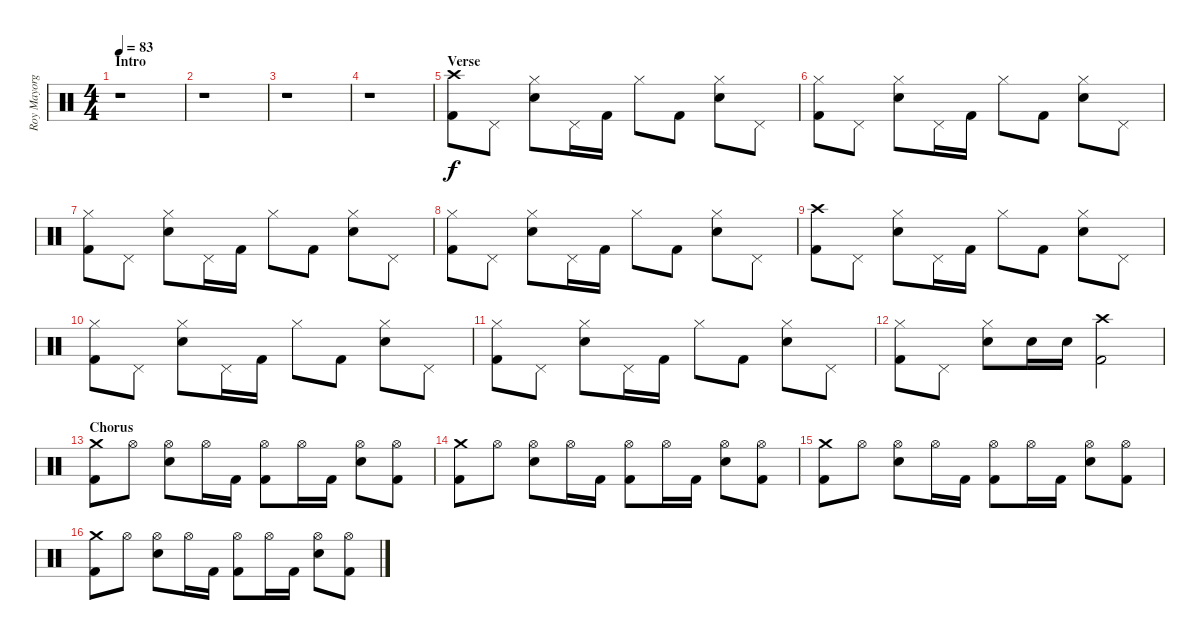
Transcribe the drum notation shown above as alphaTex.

\track ("Roy Mayorga" "Roy Mayorg") {instrument percussion}
\staff {score}
\articulation defaults
\ts (4 4)
\section ("" "Intro")
\tempo 83
\clef neutral
\ks c
r.1{dy f} |
r.1 |
r.1 |
r.1 |
\section ("" "Verse ")
("Crash high (hit)" "Kick (hit) 2").8 "Pedal Hi-Hat (hit)".8 ("Hi-Hat (closed)" "Electric Snare (hit)").8 "Pedal Hi-Hat (hit)".16 "Kick (hit) 2".16 "Hi-Hat (closed)".8 "Kick (hit) 2".8 ("Electric Snare (hit)" "Hi-Hat (closed)").8 "Pedal Hi-Hat (hit)".8 |
("Hi-Hat (closed)" "Kick (hit) 2").8 "Pedal Hi-Hat (hit)".8 ("Hi-Hat (closed)" "Electric Snare (hit)").8 "Pedal Hi-Hat (hit)".16 "Kick (hit) 2".16 "Hi-Hat (closed)".8 "Kick (hit) 2".8 ("Electric Snare (hit)" "Hi-Hat (closed)").8 "Pedal Hi-Hat (hit)".8 |
("Hi-Hat (closed)" "Kick (hit) 2").8 "Pedal Hi-Hat (hit)".8 ("Hi-Hat (closed)" "Electric Snare (hit)").8 "Pedal Hi-Hat (hit)".16 "Kick (hit) 2".16 "Hi-Hat (closed)".8 "Kick (hit) 2".8 ("Electric Snare (hit)" "Hi-Hat (closed)").8 "Pedal Hi-Hat (hit)".8 |
("Hi-Hat (closed)" "Kick (hit) 2").8 "Pedal Hi-Hat (hit)".8 ("Hi-Hat (closed)" "Electric Snare (hit)").8 "Pedal Hi-Hat (hit)".16 "Kick (hit) 2".16 "Hi-Hat (closed)".8 "Kick (hit) 2".8 ("Electric Snare (hit)" "Hi-Hat (closed)").8 "Pedal Hi-Hat (hit)".8 |
("Crash high (hit)" "Kick (hit) 2").8 "Pedal Hi-Hat (hit)".8 ("Hi-Hat (closed)" "Electric Snare (hit)").8 "Pedal Hi-Hat (hit)".16 "Kick (hit) 2".16 "Hi-Hat (closed)".8 "Kick (hit) 2".8 ("Electric Snare (hit)" "Hi-Hat (closed)").8 "Pedal Hi-Hat (hit)".8 |
("Hi-Hat (closed)" "Kick (hit) 2").8 "Pedal Hi-Hat (hit)".8 ("Hi-Hat (closed)" "Electric Snare (hit)").8 "Pedal Hi-Hat (hit)".16 "Kick (hit) 2".16 "Hi-Hat (closed)".8 "Kick (hit) 2".8 ("Electric Snare (hit)" "Hi-Hat (closed)").8 "Pedal Hi-Hat (hit)".8 |
("Hi-Hat (closed)" "Kick (hit) 2").8 "Pedal Hi-Hat (hit)".8 ("Hi-Hat (closed)" "Electric Snare (hit)").8 "Pedal Hi-Hat (hit)".16 "Kick (hit) 2".16 "Hi-Hat (closed)".8 "Kick (hit) 2".8 ("Electric Snare (hit)" "Hi-Hat (closed)").8 "Pedal Hi-Hat (hit)".8 |
("Hi-Hat (closed)" "Kick (hit) 2").8 "Pedal Hi-Hat (hit)".8 ("Hi-Hat (closed)" "Electric Snare (hit)").8 "Electric Snare (hit)".16 "Electric Snare (hit)".16 ("Kick (hit) 2" "Crash high (hit)").2 |
\section ("" "Chorus")
("Crash medium (hit)" "Kick (hit) 2").8 "Hi-Hat (open)".8 ("Hi-Hat (open)" "Electric Snare (hit)").8 "Hi-Hat (open)".16 "Kick (hit) 2".16 ("Kick (hit) 2" "Hi-Hat (open)").8 "Hi-Hat (open)".16 "Kick (hit) 2".16 ("Electric Snare (hit)" "Hi-Hat (open)").8 ("Hi-Hat (open)" "Kick (hit) 2").8 |
("Crash medium (hit)" "Kick (hit) 2").8 "Hi-Hat (open)".8 ("Hi-Hat (open)" "Electric Snare (hit)").8 "Hi-Hat (open)".16 "Kick (hit) 2".16 ("Kick (hit) 2" "Hi-Hat (open)").8 "Hi-Hat (open)".16 "Kick (hit) 2".16 ("Electric Snare (hit)" "Hi-Hat (open)").8 ("Hi-Hat (open)" "Kick (hit) 2").8 |
("Crash medium (hit)" "Kick (hit) 2").8 "Hi-Hat (open)".8 ("Hi-Hat (open)" "Electric Snare (hit)").8 "Hi-Hat (open)".16 "Kick (hit) 2".16 ("Kick (hit) 2" "Hi-Hat (open)").8 "Hi-Hat (open)".16 "Kick (hit) 2".16 ("Electric Snare (hit)" "Hi-Hat (open)").8 ("Hi-Hat (open)" "Kick (hit) 2").8 |
("Crash medium (hit)" "Kick (hit) 2").8 "Hi-Hat (open)".8 ("Hi-Hat (open)" "Electric Snare (hit)").8 "Hi-Hat (open)".16 "Kick (hit) 2".16 ("Kick (hit) 2" "Hi-Hat (open)").8 "Hi-Hat (open)".16 "Kick (hit) 2".16 ("Electric Snare (hit)" "Hi-Hat (open)").8 ("Hi-Hat (open)" "Kick (hit) 2").8
